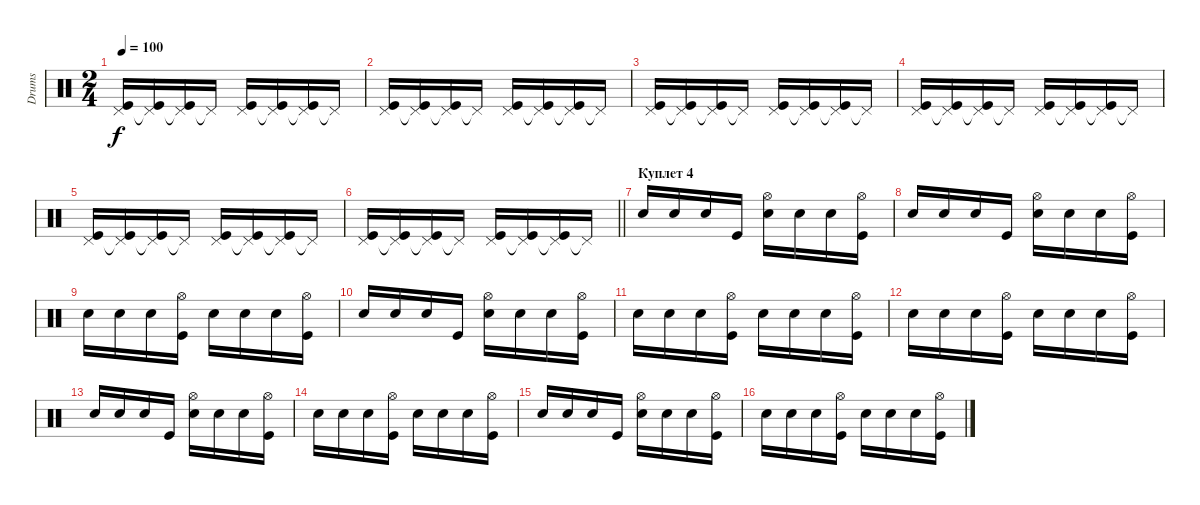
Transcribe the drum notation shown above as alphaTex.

\track ("Drums" "Drums") {instrument percussion}
\staff {score}
\articulation defaults
\ts (2 4)
\tempo 100
\clef neutral
\ks c
("Pedal Hi-Hat (hit)" "Kick (hit)").16{dy f} ("Pedal Hi-Hat (hit)"{t} "Kick (hit)").16 ("Pedal Hi-Hat (hit)"{t} "Kick (hit)").16 "Pedal Hi-Hat (hit)"{t}.16 ("Pedal Hi-Hat (hit)" "Kick (hit)").16 ("Pedal Hi-Hat (hit)"{t} "Kick (hit)").16 ("Pedal Hi-Hat (hit)"{t} "Kick (hit)").16 "Pedal Hi-Hat (hit)"{t}.16 |
("Pedal Hi-Hat (hit)" "Kick (hit)").16 ("Pedal Hi-Hat (hit)"{t} "Kick (hit)").16 ("Pedal Hi-Hat (hit)"{t} "Kick (hit)").16 "Pedal Hi-Hat (hit)"{t}.16 ("Pedal Hi-Hat (hit)" "Kick (hit)").16 ("Pedal Hi-Hat (hit)"{t} "Kick (hit)").16 ("Pedal Hi-Hat (hit)"{t} "Kick (hit)").16 "Pedal Hi-Hat (hit)"{t}.16 |
("Pedal Hi-Hat (hit)" "Kick (hit)").16 ("Pedal Hi-Hat (hit)"{t} "Kick (hit)").16 ("Pedal Hi-Hat (hit)"{t} "Kick (hit)").16 "Pedal Hi-Hat (hit)"{t}.16 ("Pedal Hi-Hat (hit)" "Kick (hit)").16 ("Pedal Hi-Hat (hit)"{t} "Kick (hit)").16 ("Pedal Hi-Hat (hit)"{t} "Kick (hit)").16 "Pedal Hi-Hat (hit)"{t}.16 |
("Pedal Hi-Hat (hit)" "Kick (hit)").16 ("Pedal Hi-Hat (hit)"{t} "Kick (hit)").16 ("Pedal Hi-Hat (hit)"{t} "Kick (hit)").16 "Pedal Hi-Hat (hit)"{t}.16 ("Pedal Hi-Hat (hit)" "Kick (hit)").16 ("Pedal Hi-Hat (hit)"{t} "Kick (hit)").16 ("Pedal Hi-Hat (hit)"{t} "Kick (hit)").16 "Pedal Hi-Hat (hit)"{t}.16 |
("Pedal Hi-Hat (hit)" "Kick (hit)").16 ("Pedal Hi-Hat (hit)"{t} "Kick (hit)").16 ("Pedal Hi-Hat (hit)"{t} "Kick (hit)").16 "Pedal Hi-Hat (hit)"{t}.16 ("Pedal Hi-Hat (hit)" "Kick (hit)").16 ("Pedal Hi-Hat (hit)"{t} "Kick (hit)").16 ("Pedal Hi-Hat (hit)"{t} "Kick (hit)").16 "Pedal Hi-Hat (hit)"{t}.16 |
\barLineRight lightlight
("Pedal Hi-Hat (hit)" "Kick (hit)").16 ("Pedal Hi-Hat (hit)"{t} "Kick (hit)").16 ("Pedal Hi-Hat (hit)"{t} "Kick (hit)").16 "Pedal Hi-Hat (hit)"{t}.16 ("Pedal Hi-Hat (hit)" "Kick (hit)").16 ("Pedal Hi-Hat (hit)"{t} "Kick (hit)").16 ("Pedal Hi-Hat (hit)"{t} "Kick (hit)").16 "Pedal Hi-Hat (hit)"{t}.16 |
\section ("" "Куплет 4")
"Electric Snare (hit)".16 "Electric Snare (hit)".16 "Electric Snare (hit)".16 "Kick (hit)".16 ("Hi-Hat (open)" "Electric Snare (hit)").16 "Electric Snare (hit)".16 "Electric Snare (hit)".16 ("Hi-Hat (open)" "Kick (hit)").16 |
"Electric Snare (hit)".16 "Electric Snare (hit)".16 "Electric Snare (hit)".16 "Kick (hit)".16 ("Hi-Hat (open)" "Electric Snare (hit)").16 "Electric Snare (hit)".16 "Electric Snare (hit)".16 ("Hi-Hat (open)" "Kick (hit)").16 |
"Electric Snare (hit)".16 "Electric Snare (hit)".16 "Electric Snare (hit)".16 ("Hi-Hat (open)" "Kick (hit)").16 "Electric Snare (hit)".16 "Electric Snare (hit)".16 "Electric Snare (hit)".16 ("Hi-Hat (open)" "Kick (hit)").16 |
"Electric Snare (hit)".16 "Electric Snare (hit)".16 "Electric Snare (hit)".16 "Kick (hit)".16 ("Hi-Hat (open)" "Electric Snare (hit)").16 "Electric Snare (hit)".16 "Electric Snare (hit)".16 ("Hi-Hat (open)" "Kick (hit)").16 |
"Electric Snare (hit)".16 "Electric Snare (hit)".16 "Electric Snare (hit)".16 ("Hi-Hat (open)" "Kick (hit)").16 "Electric Snare (hit)".16 "Electric Snare (hit)".16 "Electric Snare (hit)".16 ("Hi-Hat (open)" "Kick (hit)").16 |
"Electric Snare (hit)".16 "Electric Snare (hit)".16 "Electric Snare (hit)".16 ("Hi-Hat (open)" "Kick (hit)").16 "Electric Snare (hit)".16 "Electric Snare (hit)".16 "Electric Snare (hit)".16 ("Hi-Hat (open)" "Kick (hit)").16 |
"Electric Snare (hit)".16 "Electric Snare (hit)".16 "Electric Snare (hit)".16 "Kick (hit)".16 ("Hi-Hat (open)" "Electric Snare (hit)").16 "Electric Snare (hit)".16 "Electric Snare (hit)".16 ("Hi-Hat (open)" "Kick (hit)").16 |
"Electric Snare (hit)".16 "Electric Snare (hit)".16 "Electric Snare (hit)".16 ("Hi-Hat (open)" "Kick (hit)").16 "Electric Snare (hit)".16 "Electric Snare (hit)".16 "Electric Snare (hit)".16 ("Hi-Hat (open)" "Kick (hit)").16 |
"Electric Snare (hit)".16 "Electric Snare (hit)".16 "Electric Snare (hit)".16 "Kick (hit)".16 ("Hi-Hat (open)" "Electric Snare (hit)").16 "Electric Snare (hit)".16 "Electric Snare (hit)".16 ("Hi-Hat (open)" "Kick (hit)").16 |
"Electric Snare (hit)".16 "Electric Snare (hit)".16 "Electric Snare (hit)".16 ("Hi-Hat (open)" "Kick (hit)").16 "Electric Snare (hit)".16 "Electric Snare (hit)".16 "Electric Snare (hit)".16 ("Hi-Hat (open)" "Kick (hit)").16
